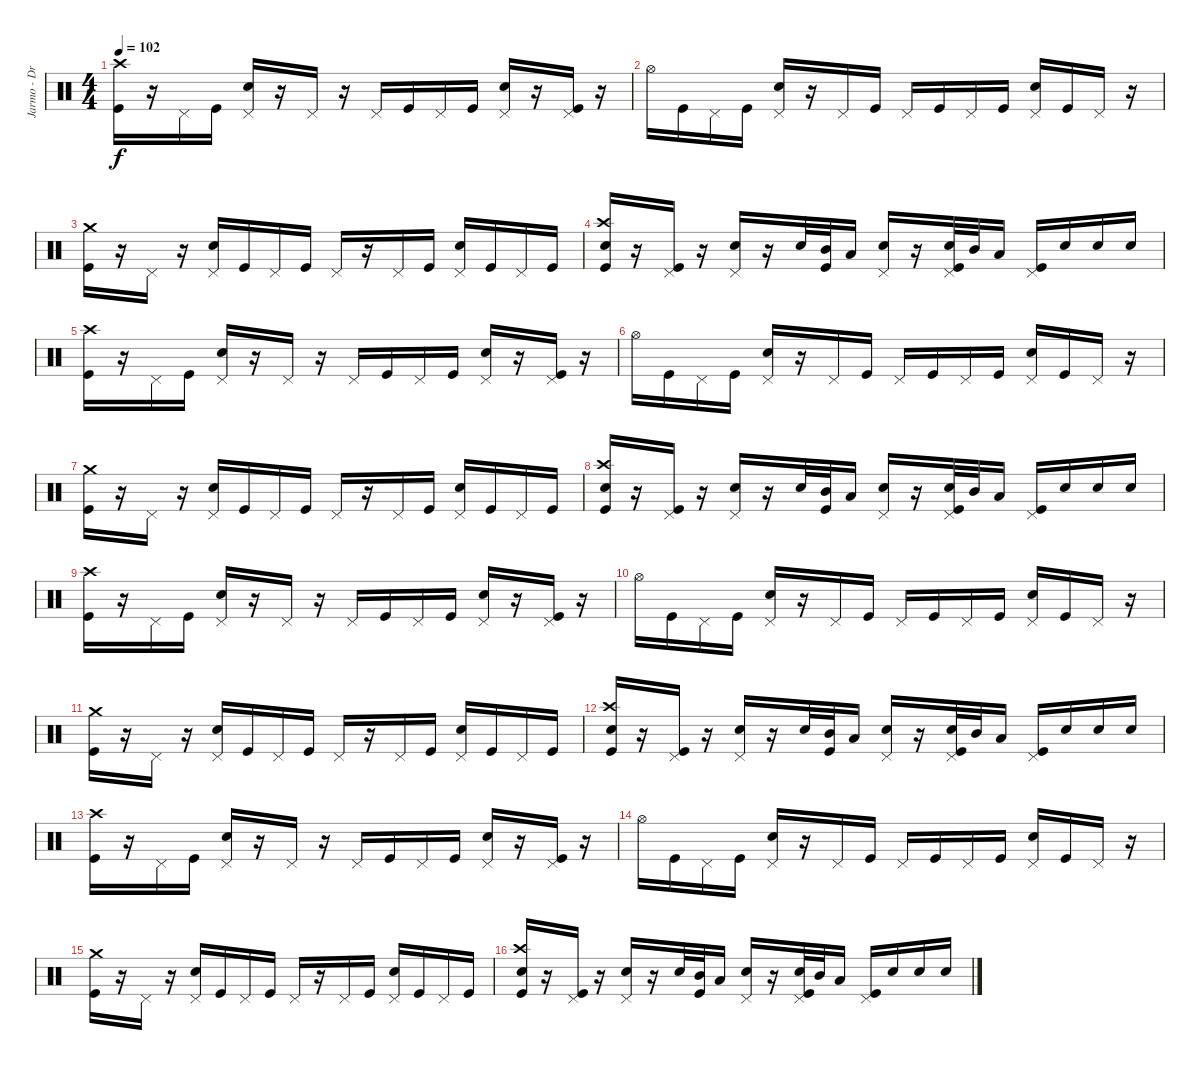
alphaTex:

\track ("Jarmo - Drums" "Jarmo - Dr") {instrument percussion}
\staff {score}
\articulation defaults
\ts (4 4)
\tempo 102
\clef neutral
\ks c
("Kick (hit)" "Crash high (hit)").16{dy f} r.16 "Pedal Hi-Hat (hit)".16 "Kick (hit)".16 ("Electric Snare (hit)" "Pedal Hi-Hat (hit)").16 r.16 "Pedal Hi-Hat (hit)".16 r.16 "Pedal Hi-Hat (hit)".16 "Kick (hit)".16 "Pedal Hi-Hat (hit)".16 "Kick (hit)".16 ("Electric Snare (hit)" "Pedal Hi-Hat (hit)").16 r.16 ("Kick (hit)" "Pedal Hi-Hat (hit)").16 r.16 |
"Hi-Hat (open)".16 "Kick (hit)".16 "Pedal Hi-Hat (hit)".16 "Kick (hit)".16 ("Electric Snare (hit)" "Pedal Hi-Hat (hit)").16 r.16 "Pedal Hi-Hat (hit)".16 "Kick (hit)".16 "Pedal Hi-Hat (hit)".16 "Kick (hit)".16 "Pedal Hi-Hat (hit)".16 "Kick (hit)".16 ("Electric Snare (hit)" "Pedal Hi-Hat (hit)").16 "Kick (hit)".16 "Pedal Hi-Hat (hit)".16 r.16 |
("Kick (hit)" "Crash medium (hit)").16 r.16 "Pedal Hi-Hat (hit)".16 r.16 ("Electric Snare (hit)" "Pedal Hi-Hat (hit)").16 "Kick (hit)".16 "Pedal Hi-Hat (hit)".16 "Kick (hit)".16 "Pedal Hi-Hat (hit)".16 r.16 "Pedal Hi-Hat (hit)".16 "Kick (hit)".16 ("Electric Snare (hit)" "Pedal Hi-Hat (hit)").16 "Kick (hit)".16 "Pedal Hi-Hat (hit)".16 "Kick (hit)".16 |
("Kick (hit)" "Electric Snare (hit)" "Crash high (hit)").16 r.16 ("Kick (hit)" "Pedal Hi-Hat (hit)").16 r.16 ("Electric Snare (hit)" "Pedal Hi-Hat (hit)").16 r.16 "Electric Snare (hit)".32 ("Kick (hit)" "Mid Tom (hit)").32 "Low Tom (hit)".16 ("Electric Snare (hit)" "Pedal Hi-Hat (hit)").16 r.16 ("Kick (hit)" "Electric Snare (hit)" "Pedal Hi-Hat (hit)").32 "Mid Tom (hit)".32 "Low Tom (hit)".16 ("Kick (hit)" "Pedal Hi-Hat (hit)").16 "Electric Snare (hit)".16 "Electric Snare (hit)".16 "Electric Snare (hit)".16 |
("Kick (hit)" "Crash high (hit)").16 r.16 "Pedal Hi-Hat (hit)".16 "Kick (hit)".16 ("Electric Snare (hit)" "Pedal Hi-Hat (hit)").16 r.16 "Pedal Hi-Hat (hit)".16 r.16 "Pedal Hi-Hat (hit)".16 "Kick (hit)".16 "Pedal Hi-Hat (hit)".16 "Kick (hit)".16 ("Electric Snare (hit)" "Pedal Hi-Hat (hit)").16 r.16 ("Kick (hit)" "Pedal Hi-Hat (hit)").16 r.16 |
"Hi-Hat (open)".16 "Kick (hit)".16 "Pedal Hi-Hat (hit)".16 "Kick (hit)".16 ("Electric Snare (hit)" "Pedal Hi-Hat (hit)").16 r.16 "Pedal Hi-Hat (hit)".16 "Kick (hit)".16 "Pedal Hi-Hat (hit)".16 "Kick (hit)".16 "Pedal Hi-Hat (hit)".16 "Kick (hit)".16 ("Electric Snare (hit)" "Pedal Hi-Hat (hit)").16 "Kick (hit)".16 "Pedal Hi-Hat (hit)".16 r.16 |
("Kick (hit)" "Crash medium (hit)").16 r.16 "Pedal Hi-Hat (hit)".16 r.16 ("Electric Snare (hit)" "Pedal Hi-Hat (hit)").16 "Kick (hit)".16 "Pedal Hi-Hat (hit)".16 "Kick (hit)".16 "Pedal Hi-Hat (hit)".16 r.16 "Pedal Hi-Hat (hit)".16 "Kick (hit)".16 ("Electric Snare (hit)" "Pedal Hi-Hat (hit)").16 "Kick (hit)".16 "Pedal Hi-Hat (hit)".16 "Kick (hit)".16 |
("Kick (hit)" "Electric Snare (hit)" "Crash high (hit)").16 r.16 ("Kick (hit)" "Pedal Hi-Hat (hit)").16 r.16 ("Electric Snare (hit)" "Pedal Hi-Hat (hit)").16 r.16 "Electric Snare (hit)".32 ("Kick (hit)" "Mid Tom (hit)").32 "Low Tom (hit)".16 ("Electric Snare (hit)" "Pedal Hi-Hat (hit)").16 r.16 ("Kick (hit)" "Electric Snare (hit)" "Pedal Hi-Hat (hit)").32 "Mid Tom (hit)".32 "Low Tom (hit)".16 ("Kick (hit)" "Pedal Hi-Hat (hit)").16 "Electric Snare (hit)".16 "Electric Snare (hit)".16 "Electric Snare (hit)".16 |
("Kick (hit)" "Crash high (hit)").16 r.16 "Pedal Hi-Hat (hit)".16 "Kick (hit)".16 ("Electric Snare (hit)" "Pedal Hi-Hat (hit)").16 r.16 "Pedal Hi-Hat (hit)".16 r.16 "Pedal Hi-Hat (hit)".16 "Kick (hit)".16 "Pedal Hi-Hat (hit)".16 "Kick (hit)".16 ("Electric Snare (hit)" "Pedal Hi-Hat (hit)").16 r.16 ("Kick (hit)" "Pedal Hi-Hat (hit)").16 r.16 |
"Hi-Hat (open)".16 "Kick (hit)".16 "Pedal Hi-Hat (hit)".16 "Kick (hit)".16 ("Electric Snare (hit)" "Pedal Hi-Hat (hit)").16 r.16 "Pedal Hi-Hat (hit)".16 "Kick (hit)".16 "Pedal Hi-Hat (hit)".16 "Kick (hit)".16 "Pedal Hi-Hat (hit)".16 "Kick (hit)".16 ("Electric Snare (hit)" "Pedal Hi-Hat (hit)").16 "Kick (hit)".16 "Pedal Hi-Hat (hit)".16 r.16 |
("Kick (hit)" "Crash medium (hit)").16 r.16 "Pedal Hi-Hat (hit)".16 r.16 ("Electric Snare (hit)" "Pedal Hi-Hat (hit)").16 "Kick (hit)".16 "Pedal Hi-Hat (hit)".16 "Kick (hit)".16 "Pedal Hi-Hat (hit)".16 r.16 "Pedal Hi-Hat (hit)".16 "Kick (hit)".16 ("Electric Snare (hit)" "Pedal Hi-Hat (hit)").16 "Kick (hit)".16 "Pedal Hi-Hat (hit)".16 "Kick (hit)".16 |
("Kick (hit)" "Electric Snare (hit)" "Crash high (hit)").16 r.16 ("Kick (hit)" "Pedal Hi-Hat (hit)").16 r.16 ("Electric Snare (hit)" "Pedal Hi-Hat (hit)").16 r.16 "Electric Snare (hit)".32 ("Kick (hit)" "Mid Tom (hit)").32 "Low Tom (hit)".16 ("Electric Snare (hit)" "Pedal Hi-Hat (hit)").16 r.16 ("Kick (hit)" "Electric Snare (hit)" "Pedal Hi-Hat (hit)").32 "Mid Tom (hit)".32 "Low Tom (hit)".16 ("Kick (hit)" "Pedal Hi-Hat (hit)").16 "Electric Snare (hit)".16 "Electric Snare (hit)".16 "Electric Snare (hit)".16 |
("Kick (hit)" "Crash high (hit)").16 r.16 "Pedal Hi-Hat (hit)".16 "Kick (hit)".16 ("Electric Snare (hit)" "Pedal Hi-Hat (hit)").16 r.16 "Pedal Hi-Hat (hit)".16 r.16 "Pedal Hi-Hat (hit)".16 "Kick (hit)".16 "Pedal Hi-Hat (hit)".16 "Kick (hit)".16 ("Electric Snare (hit)" "Pedal Hi-Hat (hit)").16 r.16 ("Kick (hit)" "Pedal Hi-Hat (hit)").16 r.16 |
"Hi-Hat (open)".16 "Kick (hit)".16 "Pedal Hi-Hat (hit)".16 "Kick (hit)".16 ("Electric Snare (hit)" "Pedal Hi-Hat (hit)").16 r.16 "Pedal Hi-Hat (hit)".16 "Kick (hit)".16 "Pedal Hi-Hat (hit)".16 "Kick (hit)".16 "Pedal Hi-Hat (hit)".16 "Kick (hit)".16 ("Electric Snare (hit)" "Pedal Hi-Hat (hit)").16 "Kick (hit)".16 "Pedal Hi-Hat (hit)".16 r.16 |
("Kick (hit)" "Crash medium (hit)").16 r.16 "Pedal Hi-Hat (hit)".16 r.16 ("Electric Snare (hit)" "Pedal Hi-Hat (hit)").16 "Kick (hit)".16 "Pedal Hi-Hat (hit)".16 "Kick (hit)".16 "Pedal Hi-Hat (hit)".16 r.16 "Pedal Hi-Hat (hit)".16 "Kick (hit)".16 ("Electric Snare (hit)" "Pedal Hi-Hat (hit)").16 "Kick (hit)".16 "Pedal Hi-Hat (hit)".16 "Kick (hit)".16 |
("Kick (hit)" "Electric Snare (hit)" "Crash high (hit)").16 r.16 ("Kick (hit)" "Pedal Hi-Hat (hit)").16 r.16 ("Electric Snare (hit)" "Pedal Hi-Hat (hit)").16 r.16 "Electric Snare (hit)".32 ("Kick (hit)" "Mid Tom (hit)").32 "Low Tom (hit)".16 ("Electric Snare (hit)" "Pedal Hi-Hat (hit)").16 r.16 ("Kick (hit)" "Electric Snare (hit)" "Pedal Hi-Hat (hit)").32 "Mid Tom (hit)".32 "Low Tom (hit)".16 ("Kick (hit)" "Pedal Hi-Hat (hit)").16 "Electric Snare (hit)".16 "Electric Snare (hit)".16 "Electric Snare (hit)".16
